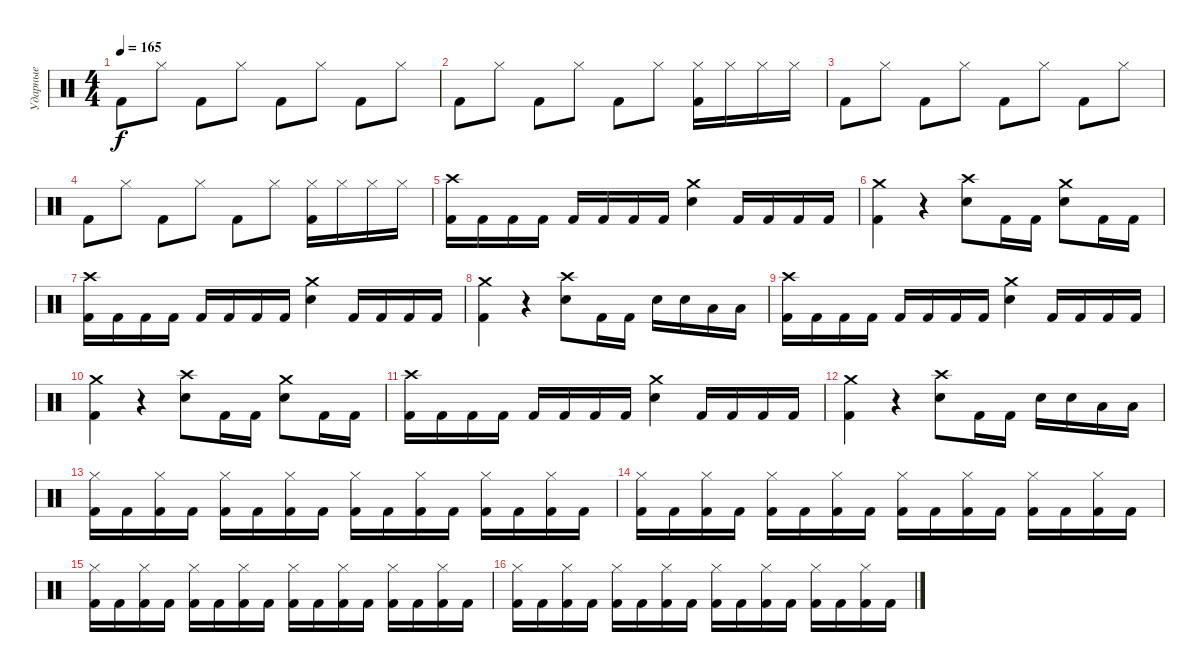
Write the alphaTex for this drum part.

\track ("Ударные" "Ударные") {instrument percussion}
\staff {score}
\articulation defaults
\ts (4 4)
\tempo 165
\clef neutral
\ks c "Kick (hit) 2".8{dy f} "Hi-Hat (closed)".8 "Kick (hit) 2".8 "Hi-Hat (closed)".8 "Kick (hit) 2".8 "Hi-Hat (closed)".8 "Kick (hit) 2".8 "Hi-Hat (closed)".8
|
"Kick (hit) 2".8 "Hi-Hat (closed)".8 "Kick (hit) 2".8 "Hi-Hat (closed)".8 "Kick (hit) 2".8 "Hi-Hat (closed)".8 ("Kick (hit) 2" "Hi-Hat (closed)").16 "Hi-Hat (closed)".16 "Hi-Hat (closed)".16 "Hi-Hat (closed)".16 |
"Kick (hit) 2".8 "Hi-Hat (closed)".8 "Kick (hit) 2".8 "Hi-Hat (closed)".8 "Kick (hit) 2".8 "Hi-Hat (closed)".8 "Kick (hit) 2".8 "Hi-Hat (closed)".8 |
"Kick (hit) 2".8 "Hi-Hat (closed)".8 "Kick (hit) 2".8 "Hi-Hat (closed)".8 "Kick (hit) 2".8 "Hi-Hat (closed)".8 ("Kick (hit) 2" "Hi-Hat (closed)").16 "Hi-Hat (closed)".16 "Hi-Hat (closed)".16 "Hi-Hat (closed)".16 |
("Kick (hit) 2" "Crash high (hit)").16 "Kick (hit) 2".16 "Kick (hit) 2".16 "Kick (hit) 2".16 "Kick (hit) 2".16 "Kick (hit) 2".16 "Kick (hit) 2".16 "Kick (hit) 2".16 ("Snare (hit) 2" "Crash medium (hit)").4 "Kick (hit) 2".16 "Kick (hit) 2".16 "Kick (hit) 2".16 "Kick (hit) 2".16 |
("Kick (hit) 2" "Crash medium (hit)").4 r.4 ("Snare (hit) 2" "Crash high (hit)").8 "Kick (hit) 2".16 "Kick (hit) 2".16 ("Snare (hit) 2" "Crash medium (hit)").8 "Kick (hit) 2".16 "Kick (hit) 2".16 |
("Kick (hit) 2" "Crash high (hit)").16 "Kick (hit) 2".16 "Kick (hit) 2".16 "Kick (hit) 2".16 "Kick (hit) 2".16 "Kick (hit) 2".16 "Kick (hit) 2".16 "Kick (hit) 2".16 ("Snare (hit) 2" "Crash medium (hit)").4 "Kick (hit) 2".16 "Kick (hit) 2".16 "Kick (hit) 2".16 "Kick (hit) 2".16 |
("Kick (hit) 2" "Crash medium (hit)").4 r.4 ("Snare (hit) 2" "Crash high (hit)").8 "Kick (hit) 2".16 "Kick (hit) 2".16 "Snare (hit) 2".16 "Snare (hit) 2".16 "Low Tom (hit)".16 "Low Tom (hit)".16 |
("Kick (hit) 2" "Crash high (hit)").16 "Kick (hit) 2".16 "Kick (hit) 2".16 "Kick (hit) 2".16 "Kick (hit) 2".16 "Kick (hit) 2".16 "Kick (hit) 2".16 "Kick (hit) 2".16 ("Snare (hit) 2" "Crash medium (hit)").4 "Kick (hit) 2".16 "Kick (hit) 2".16 "Kick (hit) 2".16 "Kick (hit) 2".16 |
("Kick (hit) 2" "Crash medium (hit)").4 r.4 ("Snare (hit) 2" "Crash high (hit)").8 "Kick (hit) 2".16 "Kick (hit) 2".16 ("Snare (hit) 2" "Crash medium (hit)").8 "Kick (hit) 2".16 "Kick (hit) 2".16 |
("Kick (hit) 2" "Crash high (hit)").16 "Kick (hit) 2".16 "Kick (hit) 2".16 "Kick (hit) 2".16 "Kick (hit) 2".16 "Kick (hit) 2".16 "Kick (hit) 2".16 "Kick (hit) 2".16 ("Snare (hit) 2" "Crash medium (hit)").4 "Kick (hit) 2".16 "Kick (hit) 2".16 "Kick (hit) 2".16 "Kick (hit) 2".16 |
("Kick (hit) 2" "Crash medium (hit)").4 r.4 ("Snare (hit) 2" "Crash high (hit)").8 "Kick (hit) 2".16 "Kick (hit) 2".16 "Snare (hit) 2".16 "Snare (hit) 2".16 "Low Tom (hit)".16 "Low Tom (hit)".16 |
("Kick (hit) 2" "Hi-Hat (closed)").16 "Kick (hit) 2".16 ("Kick (hit) 2" "Hi-Hat (closed)").16 "Kick (hit) 2".16 ("Kick (hit) 2" "Hi-Hat (closed)").16 "Kick (hit) 2".16 ("Kick (hit) 2" "Hi-Hat (closed)").16 "Kick (hit) 2".16 ("Kick (hit) 2" "Hi-Hat (closed)").16 "Kick (hit) 2".16 ("Kick (hit) 2" "Hi-Hat (closed)").16 "Kick (hit) 2".16 ("Kick (hit) 2" "Hi-Hat (closed)").16 "Kick (hit) 2".16 ("Kick (hit) 2" "Hi-Hat (closed)").16 "Kick (hit) 2".16 |
("Kick (hit) 2" "Hi-Hat (closed)").16 "Kick (hit) 2".16 ("Kick (hit) 2" "Hi-Hat (closed)").16 "Kick (hit) 2".16 ("Kick (hit) 2" "Hi-Hat (closed)").16 "Kick (hit) 2".16 ("Kick (hit) 2" "Hi-Hat (closed)").16 "Kick (hit) 2".16 ("Kick (hit) 2" "Hi-Hat (closed)").16 "Kick (hit) 2".16 ("Kick (hit) 2" "Hi-Hat (closed)").16 "Kick (hit) 2".16 ("Kick (hit) 2" "Hi-Hat (closed)").16 "Kick (hit) 2".16 ("Kick (hit) 2" "Hi-Hat (closed)").16 "Kick (hit) 2".16 |
("Kick (hit) 2" "Hi-Hat (closed)").16 "Kick (hit) 2".16 ("Kick (hit) 2" "Hi-Hat (closed)").16 "Kick (hit) 2".16 ("Kick (hit) 2" "Hi-Hat (closed)").16 "Kick (hit) 2".16 ("Kick (hit) 2" "Hi-Hat (closed)").16 "Kick (hit) 2".16 ("Kick (hit) 2" "Hi-Hat (closed)").16 "Kick (hit) 2".16 ("Kick (hit) 2" "Hi-Hat (closed)").16 "Kick (hit) 2".16 ("Kick (hit) 2" "Hi-Hat (closed)").16 "Kick (hit) 2".16 ("Kick (hit) 2" "Hi-Hat (closed)").16 "Kick (hit) 2".16 |
("Kick (hit) 2" "Hi-Hat (closed)").16 "Kick (hit) 2".16 ("Kick (hit) 2" "Hi-Hat (closed)").16 "Kick (hit) 2".16 ("Kick (hit) 2" "Hi-Hat (closed)").16 "Kick (hit) 2".16 ("Kick (hit) 2" "Hi-Hat (closed)").16 "Kick (hit) 2".16 ("Kick (hit) 2" "Hi-Hat (closed)").16 "Kick (hit) 2".16 ("Kick (hit) 2" "Hi-Hat (closed)").16 "Kick (hit) 2".16 ("Kick (hit) 2" "Hi-Hat (closed)").16 "Kick (hit) 2".16 ("Kick (hit) 2" "Hi-Hat (closed)").16 "Kick (hit) 2".16
